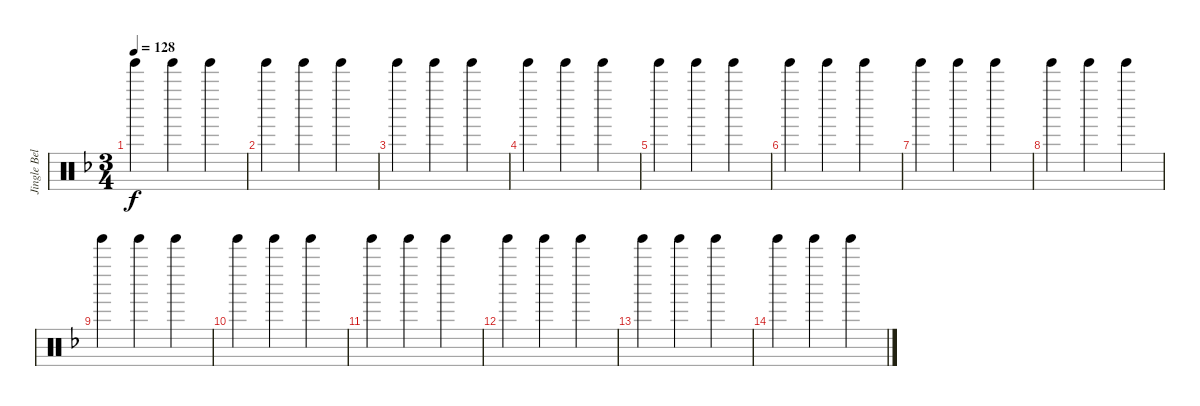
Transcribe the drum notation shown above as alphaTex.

\track ("Jingle Bells" "Jingle Bel") {instrument percussion}
\staff {score}
\articulation defaults
\ts (3 4)
\tempo 128
\clef neutral
\ks f "Tinkle Bell (hit)".4{dy f} "Tinkle Bell (hit)".4 "Tinkle Bell (hit)".4
|
"Tinkle Bell (hit)".4 "Tinkle Bell (hit)".4 "Tinkle Bell (hit)".4 |
"Tinkle Bell (hit)".4 "Tinkle Bell (hit)".4 "Tinkle Bell (hit)".4 |
"Tinkle Bell (hit)".4 "Tinkle Bell (hit)".4 "Tinkle Bell (hit)".4 |
"Tinkle Bell (hit)".4 "Tinkle Bell (hit)".4 "Tinkle Bell (hit)".4 |
"Tinkle Bell (hit)".4 "Tinkle Bell (hit)".4 "Tinkle Bell (hit)".4 |
"Tinkle Bell (hit)".4{volume 4} "Tinkle Bell (hit)".4 "Tinkle Bell (hit)".4 |
"Tinkle Bell (hit)".4 "Tinkle Bell (hit)".4 "Tinkle Bell (hit)".4 |
"Tinkle Bell (hit)".4 "Tinkle Bell (hit)".4 "Tinkle Bell (hit)".4 |
"Tinkle Bell (hit)".4 "Tinkle Bell (hit)".4 "Tinkle Bell (hit)".4 |
"Tinkle Bell (hit)".4 "Tinkle Bell (hit)".4 "Tinkle Bell (hit)".4 |
"Tinkle Bell (hit)".4 "Tinkle Bell (hit)".4 "Tinkle Bell (hit)".4{volume 0} |
"Tinkle Bell (hit)".4 "Tinkle Bell (hit)".4 "Tinkle Bell (hit)".4 |
"Tinkle Bell (hit)".4 "Tinkle Bell (hit)".4 "Tinkle Bell (hit)".4
